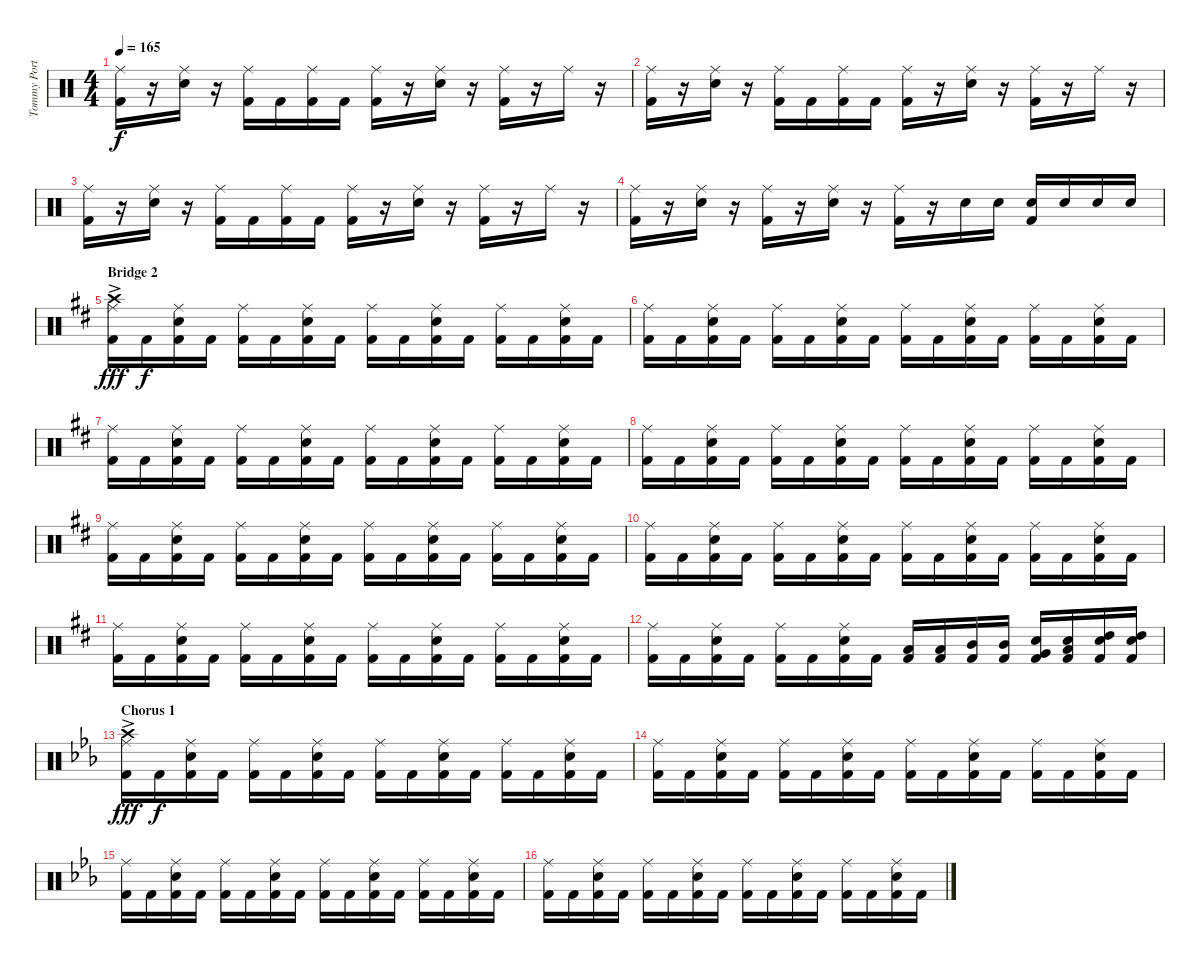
\track ("Tommy Portimo" "Tommy Port") {instrument percussion}
\staff {score}
\articulation defaults
\ts (4 4)
\tempo 165
\clef neutral
\ks aminor
("Ride (middle)" "Kick (hit) 2").16{dy f} r.16 ("Ride (middle)" "Electric Snare (hit)").16 r.16 ("Ride (middle)" "Kick (hit) 2").16 "Kick (hit) 2".16 ("Ride (middle)" "Kick (hit) 2").16 "Kick (hit) 2".16 ("Ride (middle)" "Kick (hit) 2").16 r.16 ("Ride (middle)" "Electric Snare (hit)").16 r.16 ("Ride (middle)" "Kick (hit) 2").16 r.16 "Ride (middle)".16 r.16 |
("Ride (middle)" "Kick (hit) 2").16 r.16 ("Ride (middle)" "Electric Snare (hit)").16 r.16 ("Ride (middle)" "Kick (hit) 2").16 "Kick (hit) 2".16 ("Ride (middle)" "Kick (hit) 2").16 "Kick (hit) 2".16 ("Ride (middle)" "Kick (hit) 2").16 r.16 ("Ride (middle)" "Electric Snare (hit)").16 r.16 ("Ride (middle)" "Kick (hit) 2").16 r.16 "Ride (middle)".16 r.16 |
("Ride (middle)" "Kick (hit) 2").16 r.16 ("Ride (middle)" "Electric Snare (hit)").16 r.16 ("Ride (middle)" "Kick (hit) 2").16 "Kick (hit) 2".16 ("Ride (middle)" "Kick (hit) 2").16 "Kick (hit) 2".16 ("Ride (middle)" "Kick (hit) 2").16 r.16 ("Ride (middle)" "Electric Snare (hit)").16 r.16 ("Ride (middle)" "Kick (hit) 2").16 r.16 "Ride (middle)".16 r.16 |
("Ride (middle)" "Kick (hit) 2").16 r.16 ("Ride (middle)" "Electric Snare (hit)").16 r.16 ("Ride (middle)" "Kick (hit) 2").16 r.16 ("Ride (middle)" "Electric Snare (hit)").16 r.16 ("Ride (middle)" "Kick (hit) 2").16 r.16 "Electric Snare (hit)".16 "Electric Snare (hit)".16 ("Electric Snare (hit)" "Kick (hit) 2").16 "Electric Snare (hit)".16 "Electric Snare (hit)".16 "Electric Snare (hit)".16 |
\section ("" "Bridge 2")
\ks bminor
("Crash high (hit)"{ac} "Ride (middle)" "Kick (hit) 2").16{dy fff} "Kick (hit) 2".16{dy f} ("Ride (middle)" "Electric Snare (hit)" "Kick (hit) 2").16 "Kick (hit) 2".16 ("Ride (middle)" "Kick (hit) 2").16 "Kick (hit) 2".16 ("Ride (middle)" "Electric Snare (hit)" "Kick (hit) 2").16 "Kick (hit) 2".16 ("Ride (middle)" "Kick (hit) 2").16 "Kick (hit) 2".16 ("Ride (middle)" "Electric Snare (hit)" "Kick (hit) 2").16 "Kick (hit) 2".16 ("Ride (middle)" "Kick (hit) 2").16 "Kick (hit) 2".16 ("Ride (middle)" "Electric Snare (hit)" "Kick (hit) 2").16 "Kick (hit) 2".16 |
("Ride (middle)" "Kick (hit) 2").16 "Kick (hit) 2".16 ("Ride (middle)" "Electric Snare (hit)" "Kick (hit) 2").16 "Kick (hit) 2".16 ("Ride (middle)" "Kick (hit) 2").16 "Kick (hit) 2".16 ("Ride (middle)" "Electric Snare (hit)" "Kick (hit) 2").16 "Kick (hit) 2".16 ("Ride (middle)" "Kick (hit) 2").16 "Kick (hit) 2".16 ("Ride (middle)" "Electric Snare (hit)" "Kick (hit) 2").16 "Kick (hit) 2".16 ("Ride (middle)" "Kick (hit) 2").16 "Kick (hit) 2".16 ("Ride (middle)" "Electric Snare (hit)" "Kick (hit) 2").16 "Kick (hit) 2".16 |
("Ride (middle)" "Kick (hit) 2").16 "Kick (hit) 2".16 ("Ride (middle)" "Electric Snare (hit)" "Kick (hit) 2").16 "Kick (hit) 2".16 ("Ride (middle)" "Kick (hit) 2").16 "Kick (hit) 2".16 ("Ride (middle)" "Electric Snare (hit)" "Kick (hit) 2").16 "Kick (hit) 2".16 ("Ride (middle)" "Kick (hit) 2").16 "Kick (hit) 2".16 ("Ride (middle)" "Electric Snare (hit)" "Kick (hit) 2").16 "Kick (hit) 2".16 ("Ride (middle)" "Kick (hit) 2").16 "Kick (hit) 2".16 ("Ride (middle)" "Electric Snare (hit)" "Kick (hit) 2").16 "Kick (hit) 2".16 |
("Ride (middle)" "Kick (hit) 2").16 "Kick (hit) 2".16 ("Ride (middle)" "Electric Snare (hit)" "Kick (hit) 2").16 "Kick (hit) 2".16 ("Ride (middle)" "Kick (hit) 2").16 "Kick (hit) 2".16 ("Ride (middle)" "Electric Snare (hit)" "Kick (hit) 2").16 "Kick (hit) 2".16 ("Ride (middle)" "Kick (hit) 2").16 "Kick (hit) 2".16 ("Ride (middle)" "Electric Snare (hit)" "Kick (hit) 2").16 "Kick (hit) 2".16 ("Ride (middle)" "Kick (hit) 2").16 "Kick (hit) 2".16 ("Ride (middle)" "Electric Snare (hit)" "Kick (hit) 2").16 "Kick (hit) 2".16 |
("Ride (middle)" "Kick (hit) 2").16 "Kick (hit) 2".16 ("Ride (middle)" "Electric Snare (hit)" "Kick (hit) 2").16 "Kick (hit) 2".16 ("Ride (middle)" "Kick (hit) 2").16 "Kick (hit) 2".16 ("Ride (middle)" "Electric Snare (hit)" "Kick (hit) 2").16 "Kick (hit) 2".16 ("Ride (middle)" "Kick (hit) 2").16 "Kick (hit) 2".16 ("Ride (middle)" "Electric Snare (hit)" "Kick (hit) 2").16 "Kick (hit) 2".16 ("Ride (middle)" "Kick (hit) 2").16 "Kick (hit) 2".16 ("Ride (middle)" "Electric Snare (hit)" "Kick (hit) 2").16 "Kick (hit) 2".16 |
("Ride (middle)" "Kick (hit) 2").16 "Kick (hit) 2".16 ("Ride (middle)" "Electric Snare (hit)" "Kick (hit) 2").16 "Kick (hit) 2".16 ("Ride (middle)" "Kick (hit) 2").16 "Kick (hit) 2".16 ("Ride (middle)" "Electric Snare (hit)" "Kick (hit) 2").16 "Kick (hit) 2".16 ("Ride (middle)" "Kick (hit) 2").16 "Kick (hit) 2".16 ("Ride (middle)" "Electric Snare (hit)" "Kick (hit) 2").16 "Kick (hit) 2".16 ("Ride (middle)" "Kick (hit) 2").16 "Kick (hit) 2".16 ("Ride (middle)" "Electric Snare (hit)" "Kick (hit) 2").16 "Kick (hit) 2".16 |
("Ride (middle)" "Kick (hit) 2").16 "Kick (hit) 2".16 ("Ride (middle)" "Electric Snare (hit)" "Kick (hit) 2").16 "Kick (hit) 2".16 ("Ride (middle)" "Kick (hit) 2").16 "Kick (hit) 2".16 ("Ride (middle)" "Electric Snare (hit)" "Kick (hit) 2").16 "Kick (hit) 2".16 ("Ride (middle)" "Kick (hit) 2").16 "Kick (hit) 2".16 ("Ride (middle)" "Electric Snare (hit)" "Kick (hit) 2").16 "Kick (hit) 2".16 ("Ride (middle)" "Kick (hit) 2").16 "Kick (hit) 2".16 ("Ride (middle)" "Electric Snare (hit)" "Kick (hit) 2").16 "Kick (hit) 2".16 |
("Ride (middle)" "Kick (hit) 2").16 "Kick (hit) 2".16 ("Ride (middle)" "Electric Snare (hit)" "Kick (hit) 2").16 "Kick (hit) 2".16 ("Ride (middle)" "Kick (hit) 2").16 "Kick (hit) 2".16 ("Ride (middle)" "Electric Snare (hit)" "Kick (hit) 2").16 "Kick (hit) 2".16 ("Low Tom (hit)" "Kick (hit) 2").16 ("Low Tom (hit)" "Kick (hit) 2").16 ("Mid Tom (hit)" "Kick (hit) 2").16 ("Mid Tom (hit)" "Kick (hit) 2").16 ("Very Low Tom (hit)" "Electric Snare (hit)" "Kick (hit) 2").16 ("Low Floor Tom (hit)" "Electric Snare (hit)" "Kick (hit) 2").16 ("High Tom (hit)" "Electric Snare (hit)" "Kick (hit) 2").16 ("High Tom (hit)" "Electric Snare (hit)" "Kick (hit) 2").16 |
\section ("" "Chorus 1")
\ks cminor
("Crash high (hit)"{ac} "Ride (middle)" "Kick (hit) 2").16{dy fff} "Kick (hit) 2".16{dy f} ("Ride (middle)" "Electric Snare (hit)" "Kick (hit) 2").16 "Kick (hit) 2".16 ("Ride (middle)" "Kick (hit) 2").16 "Kick (hit) 2".16 ("Ride (middle)" "Electric Snare (hit)" "Kick (hit) 2").16 "Kick (hit) 2".16 ("Ride (middle)" "Kick (hit) 2").16 "Kick (hit) 2".16 ("Ride (middle)" "Electric Snare (hit)" "Kick (hit) 2").16 "Kick (hit) 2".16 ("Ride (middle)" "Kick (hit) 2").16 "Kick (hit) 2".16 ("Ride (middle)" "Electric Snare (hit)" "Kick (hit) 2").16 "Kick (hit) 2".16 |
("Ride (middle)" "Kick (hit) 2").16 "Kick (hit) 2".16 ("Ride (middle)" "Electric Snare (hit)" "Kick (hit) 2").16 "Kick (hit) 2".16 ("Ride (middle)" "Kick (hit) 2").16 "Kick (hit) 2".16 ("Ride (middle)" "Electric Snare (hit)" "Kick (hit) 2").16 "Kick (hit) 2".16 ("Ride (middle)" "Kick (hit) 2").16 "Kick (hit) 2".16 ("Ride (middle)" "Electric Snare (hit)" "Kick (hit) 2").16 "Kick (hit) 2".16 ("Ride (middle)" "Kick (hit) 2").16 "Kick (hit) 2".16 ("Ride (middle)" "Electric Snare (hit)" "Kick (hit) 2").16 "Kick (hit) 2".16 |
("Ride (middle)" "Kick (hit) 2").16 "Kick (hit) 2".16 ("Ride (middle)" "Electric Snare (hit)" "Kick (hit) 2").16 "Kick (hit) 2".16 ("Ride (middle)" "Kick (hit) 2").16 "Kick (hit) 2".16 ("Ride (middle)" "Electric Snare (hit)" "Kick (hit) 2").16 "Kick (hit) 2".16 ("Ride (middle)" "Kick (hit) 2").16 "Kick (hit) 2".16 ("Ride (middle)" "Electric Snare (hit)" "Kick (hit) 2").16 "Kick (hit) 2".16 ("Ride (middle)" "Kick (hit) 2").16 "Kick (hit) 2".16 ("Ride (middle)" "Electric Snare (hit)" "Kick (hit) 2").16 "Kick (hit) 2".16 |
("Ride (middle)" "Kick (hit) 2").16 "Kick (hit) 2".16 ("Ride (middle)" "Electric Snare (hit)" "Kick (hit) 2").16 "Kick (hit) 2".16 ("Ride (middle)" "Kick (hit) 2").16 "Kick (hit) 2".16 ("Ride (middle)" "Electric Snare (hit)" "Kick (hit) 2").16 "Kick (hit) 2".16 ("Ride (middle)" "Kick (hit) 2").16 "Kick (hit) 2".16 ("Ride (middle)" "Electric Snare (hit)" "Kick (hit) 2").16 "Kick (hit) 2".16 ("Ride (middle)" "Kick (hit) 2").16 "Kick (hit) 2".16 ("Ride (middle)" "Electric Snare (hit)" "Kick (hit) 2").16 "Kick (hit) 2".16
